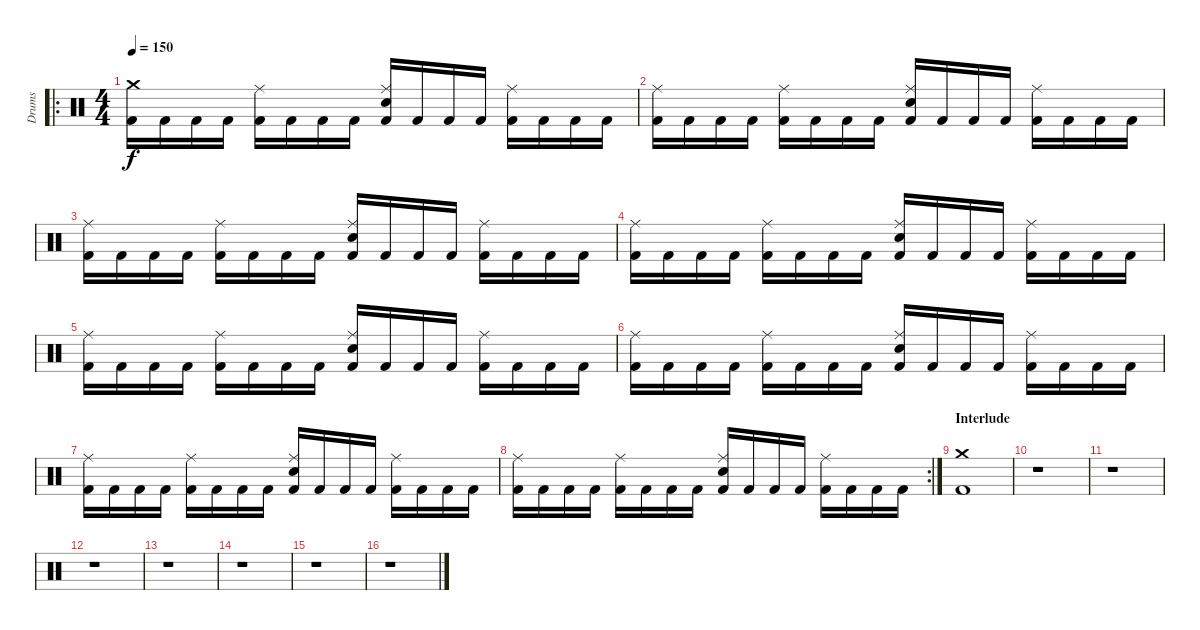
\track ("Drums" "Drums") {instrument percussion}
\staff {score}
\articulation defaults
\ro
\ts (4 4)
\tempo 150
\clef neutral
\ks c
("Kick (hit) 2" "Crash medium (hit)").16{dy f} "Kick (hit) 2".16 "Kick (hit) 2".16 "Kick (hit) 2".16 ("Kick (hit) 2" "Ride (middle)").16 "Kick (hit) 2".16 "Kick (hit) 2".16 "Kick (hit) 2".16 ("Kick (hit) 2" "Electric Snare (hit)" "Ride (middle)").16 "Kick (hit) 2".16 "Kick (hit) 2".16 "Kick (hit) 2".16 ("Kick (hit) 2" "Ride (middle)").16 "Kick (hit) 2".16 "Kick (hit) 2".16 "Kick (hit) 2".16 |
("Kick (hit) 2" "Ride (middle)").16 "Kick (hit) 2".16 "Kick (hit) 2".16 "Kick (hit) 2".16 ("Kick (hit) 2" "Ride (middle)").16 "Kick (hit) 2".16 "Kick (hit) 2".16 "Kick (hit) 2".16 ("Kick (hit) 2" "Electric Snare (hit)" "Ride (middle)").16 "Kick (hit) 2".16 "Kick (hit) 2".16 "Kick (hit) 2".16 ("Kick (hit) 2" "Ride (middle)").16 "Kick (hit) 2".16 "Kick (hit) 2".16 "Kick (hit) 2".16 |
("Kick (hit) 2" "Ride (middle)").16 "Kick (hit) 2".16 "Kick (hit) 2".16 "Kick (hit) 2".16 ("Kick (hit) 2" "Ride (middle)").16 "Kick (hit) 2".16 "Kick (hit) 2".16 "Kick (hit) 2".16 ("Kick (hit) 2" "Electric Snare (hit)" "Ride (middle)").16 "Kick (hit) 2".16 "Kick (hit) 2".16 "Kick (hit) 2".16 ("Kick (hit) 2" "Ride (middle)").16 "Kick (hit) 2".16 "Kick (hit) 2".16 "Kick (hit) 2".16 |
("Kick (hit) 2" "Ride (middle)").16 "Kick (hit) 2".16 "Kick (hit) 2".16 "Kick (hit) 2".16 ("Kick (hit) 2" "Ride (middle)").16 "Kick (hit) 2".16 "Kick (hit) 2".16 "Kick (hit) 2".16 ("Kick (hit) 2" "Electric Snare (hit)" "Ride (middle)").16 "Kick (hit) 2".16 "Kick (hit) 2".16 "Kick (hit) 2".16 ("Kick (hit) 2" "Ride (middle)").16 "Kick (hit) 2".16 "Kick (hit) 2".16 "Kick (hit) 2".16 |
("Kick (hit) 2" "Ride (middle)").16 "Kick (hit) 2".16 "Kick (hit) 2".16 "Kick (hit) 2".16 ("Kick (hit) 2" "Ride (middle)").16 "Kick (hit) 2".16 "Kick (hit) 2".16 "Kick (hit) 2".16 ("Kick (hit) 2" "Electric Snare (hit)" "Ride (middle)").16 "Kick (hit) 2".16 "Kick (hit) 2".16 "Kick (hit) 2".16 ("Kick (hit) 2" "Ride (middle)").16 "Kick (hit) 2".16 "Kick (hit) 2".16 "Kick (hit) 2".16 |
("Kick (hit) 2" "Ride (middle)").16 "Kick (hit) 2".16 "Kick (hit) 2".16 "Kick (hit) 2".16 ("Kick (hit) 2" "Ride (middle)").16 "Kick (hit) 2".16 "Kick (hit) 2".16 "Kick (hit) 2".16 ("Kick (hit) 2" "Electric Snare (hit)" "Ride (middle)").16 "Kick (hit) 2".16 "Kick (hit) 2".16 "Kick (hit) 2".16 ("Kick (hit) 2" "Ride (middle)").16 "Kick (hit) 2".16 "Kick (hit) 2".16 "Kick (hit) 2".16 |
("Kick (hit) 2" "Ride (middle)").16 "Kick (hit) 2".16 "Kick (hit) 2".16 "Kick (hit) 2".16 ("Kick (hit) 2" "Ride (middle)").16 "Kick (hit) 2".16 "Kick (hit) 2".16 "Kick (hit) 2".16 ("Kick (hit) 2" "Electric Snare (hit)" "Ride (middle)").16 "Kick (hit) 2".16 "Kick (hit) 2".16 "Kick (hit) 2".16 ("Kick (hit) 2" "Ride (middle)").16 "Kick (hit) 2".16 "Kick (hit) 2".16 "Kick (hit) 2".16 |
\rc 2
("Kick (hit) 2" "Ride (middle)").16 "Kick (hit) 2".16 "Kick (hit) 2".16 "Kick (hit) 2".16 ("Kick (hit) 2" "Ride (middle)").16 "Kick (hit) 2".16 "Kick (hit) 2".16 "Kick (hit) 2".16 ("Kick (hit) 2" "Electric Snare (hit)" "Ride (middle)").16 "Kick (hit) 2".16 "Kick (hit) 2".16 "Kick (hit) 2".16 ("Kick (hit) 2" "Ride (middle)").16 "Kick (hit) 2".16 "Kick (hit) 2".16 "Kick (hit) 2".16 |
\section ("" "Interlude")
("Kick (hit) 2" "Crash medium (hit)").1 |
r.1 |
r.1 |
r.1 |
r.1 |
r.1 |
r.1 |
r.1
